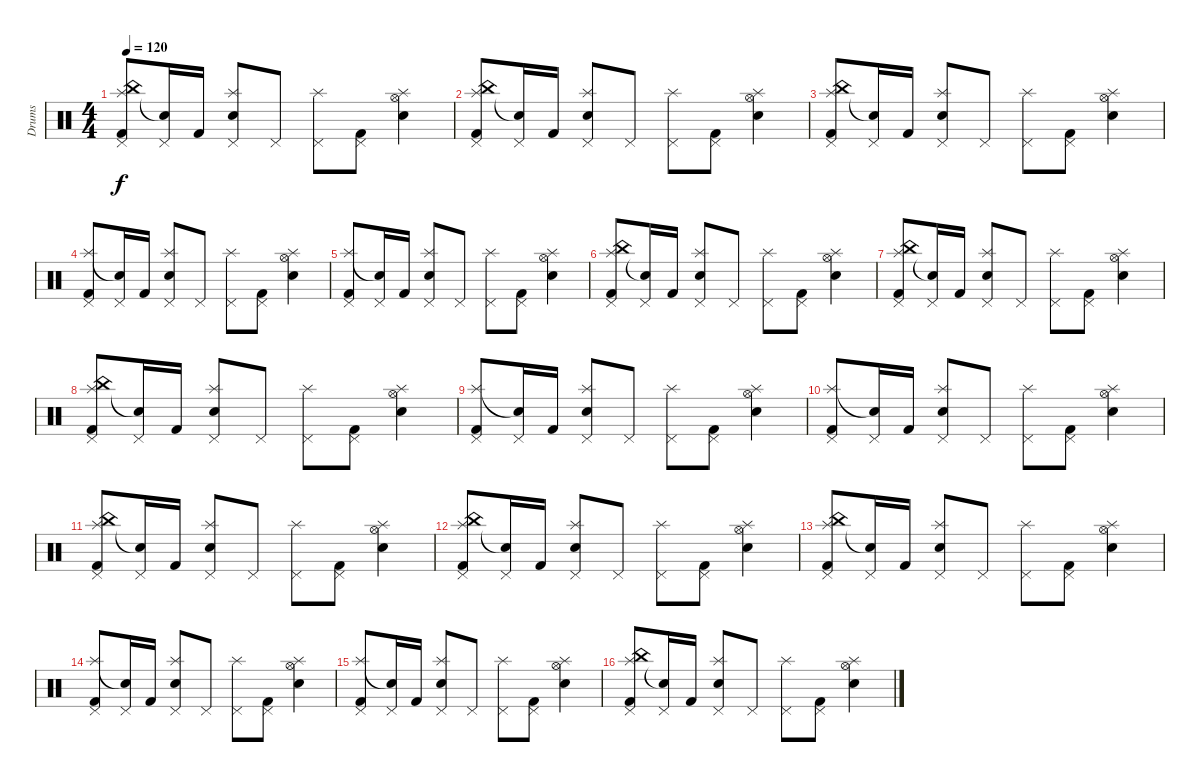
\track ("Drums" "Drums") {instrument percussion}
\staff {score}
\articulation defaults
\ts (4 4)
\tempo 120
\clef neutral
\ks c
("Pedal Hi-Hat (hit)" "Splash (hit)" "China (hit)" "Kick (hit) 2").8{dy f} ("Pedal Hi-Hat (hit)" "Snare (hit)"{t}).16 "Kick (hit) 2".16 ("Pedal Hi-Hat (hit)" "Splash (hit)" "Electric Snare (hit)").8 "Pedal Hi-Hat (hit)".8 ("Pedal Hi-Hat (hit)" "Splash (hit)").8 ("Pedal Hi-Hat (hit)" "Kick (hit) 2").8 ("Hi-Hat (open)" "Splash (hit)" "Electric Snare (hit)").4 |
("Pedal Hi-Hat (hit)" "Splash (hit)" "China (hit)" "Kick (hit) 2").8 ("Pedal Hi-Hat (hit)" "Snare (hit)"{t}).16 "Kick (hit) 2".16 ("Pedal Hi-Hat (hit)" "Splash (hit)" "Electric Snare (hit)").8 "Pedal Hi-Hat (hit)".8 ("Pedal Hi-Hat (hit)" "Splash (hit)").8 ("Pedal Hi-Hat (hit)" "Kick (hit) 2").8 ("Hi-Hat (open)" "Splash (hit)" "Electric Snare (hit)").4 |
("Pedal Hi-Hat (hit)" "Splash (hit)" "China (hit)" "Kick (hit) 2").8 ("Pedal Hi-Hat (hit)" "Snare (hit)"{t}).16 "Kick (hit) 2".16 ("Pedal Hi-Hat (hit)" "Splash (hit)" "Electric Snare (hit)").8 "Pedal Hi-Hat (hit)".8 ("Pedal Hi-Hat (hit)" "Splash (hit)").8 ("Pedal Hi-Hat (hit)" "Kick (hit) 2").8 ("Hi-Hat (open)" "Splash (hit)" "Electric Snare (hit)").4 |
("Pedal Hi-Hat (hit)" "Splash (hit)" "Kick (hit) 2").8 ("Pedal Hi-Hat (hit)" "Snare (hit)"{t}).16 "Kick (hit) 2".16 ("Pedal Hi-Hat (hit)" "Splash (hit)" "Electric Snare (hit)").8 "Pedal Hi-Hat (hit)".8 ("Pedal Hi-Hat (hit)" "Splash (hit)").8 ("Pedal Hi-Hat (hit)" "Kick (hit) 2").8 ("Hi-Hat (open)" "Splash (hit)" "Electric Snare (hit)").4 |
("Pedal Hi-Hat (hit)" "Splash (hit)" "Kick (hit) 2").8 ("Pedal Hi-Hat (hit)" "Snare (hit)"{t}).16 "Kick (hit) 2".16 ("Pedal Hi-Hat (hit)" "Splash (hit)" "Electric Snare (hit)").8 "Pedal Hi-Hat (hit)".8 ("Pedal Hi-Hat (hit)" "Splash (hit)").8 ("Pedal Hi-Hat (hit)" "Kick (hit) 2").8 ("Hi-Hat (open)" "Splash (hit)" "Electric Snare (hit)").4 |
("Pedal Hi-Hat (hit)" "Splash (hit)" "China (hit)" "Kick (hit) 2").8 ("Pedal Hi-Hat (hit)" "Snare (hit)"{t}).16 "Kick (hit) 2".16 ("Pedal Hi-Hat (hit)" "Splash (hit)" "Electric Snare (hit)").8 "Pedal Hi-Hat (hit)".8 ("Pedal Hi-Hat (hit)" "Splash (hit)").8 ("Pedal Hi-Hat (hit)" "Kick (hit) 2").8 ("Hi-Hat (open)" "Splash (hit)" "Electric Snare (hit)").4 |
("Pedal Hi-Hat (hit)" "Splash (hit)" "China (hit)" "Kick (hit) 2").8 ("Pedal Hi-Hat (hit)" "Snare (hit)"{t}).16 "Kick (hit) 2".16 ("Pedal Hi-Hat (hit)" "Splash (hit)" "Electric Snare (hit)").8 "Pedal Hi-Hat (hit)".8 ("Pedal Hi-Hat (hit)" "Splash (hit)").8 ("Pedal Hi-Hat (hit)" "Kick (hit) 2").8 ("Hi-Hat (open)" "Splash (hit)" "Electric Snare (hit)").4 |
("Pedal Hi-Hat (hit)" "Splash (hit)" "China (hit)" "Kick (hit) 2").8 ("Pedal Hi-Hat (hit)" "Snare (hit)"{t}).16 "Kick (hit) 2".16 ("Pedal Hi-Hat (hit)" "Splash (hit)" "Electric Snare (hit)").8 "Pedal Hi-Hat (hit)".8 ("Pedal Hi-Hat (hit)" "Splash (hit)").8 ("Pedal Hi-Hat (hit)" "Kick (hit) 2").8 ("Hi-Hat (open)" "Splash (hit)" "Electric Snare (hit)").4 |
("Pedal Hi-Hat (hit)" "Splash (hit)" "Kick (hit) 2").8 ("Pedal Hi-Hat (hit)" "Snare (hit)"{t}).16 "Kick (hit) 2".16 ("Pedal Hi-Hat (hit)" "Splash (hit)" "Electric Snare (hit)").8 "Pedal Hi-Hat (hit)".8 ("Pedal Hi-Hat (hit)" "Splash (hit)").8 ("Pedal Hi-Hat (hit)" "Kick (hit) 2").8 ("Hi-Hat (open)" "Splash (hit)" "Electric Snare (hit)").4 |
("Pedal Hi-Hat (hit)" "Splash (hit)" "Kick (hit) 2").8 ("Pedal Hi-Hat (hit)" "Snare (hit)"{t}).16 "Kick (hit) 2".16 ("Pedal Hi-Hat (hit)" "Splash (hit)" "Electric Snare (hit)").8 "Pedal Hi-Hat (hit)".8 ("Pedal Hi-Hat (hit)" "Splash (hit)").8 ("Pedal Hi-Hat (hit)" "Kick (hit) 2").8 ("Hi-Hat (open)" "Splash (hit)" "Electric Snare (hit)").4 |
("Pedal Hi-Hat (hit)" "Splash (hit)" "China (hit)" "Kick (hit) 2").8 ("Pedal Hi-Hat (hit)" "Snare (hit)"{t}).16 "Kick (hit) 2".16 ("Pedal Hi-Hat (hit)" "Splash (hit)" "Electric Snare (hit)").8 "Pedal Hi-Hat (hit)".8 ("Pedal Hi-Hat (hit)" "Splash (hit)").8 ("Pedal Hi-Hat (hit)" "Kick (hit) 2").8 ("Hi-Hat (open)" "Splash (hit)" "Electric Snare (hit)").4 |
("Pedal Hi-Hat (hit)" "Splash (hit)" "China (hit)" "Kick (hit) 2").8 ("Pedal Hi-Hat (hit)" "Snare (hit)"{t}).16 "Kick (hit) 2".16 ("Pedal Hi-Hat (hit)" "Splash (hit)" "Electric Snare (hit)").8 "Pedal Hi-Hat (hit)".8 ("Pedal Hi-Hat (hit)" "Splash (hit)").8 ("Pedal Hi-Hat (hit)" "Kick (hit) 2").8 ("Hi-Hat (open)" "Splash (hit)" "Electric Snare (hit)").4 |
("Pedal Hi-Hat (hit)" "Splash (hit)" "China (hit)" "Kick (hit) 2").8 ("Pedal Hi-Hat (hit)" "Snare (hit)"{t}).16 "Kick (hit) 2".16 ("Pedal Hi-Hat (hit)" "Splash (hit)" "Electric Snare (hit)").8 "Pedal Hi-Hat (hit)".8 ("Pedal Hi-Hat (hit)" "Splash (hit)").8 ("Pedal Hi-Hat (hit)" "Kick (hit) 2").8 ("Hi-Hat (open)" "Splash (hit)" "Electric Snare (hit)").4 |
("Pedal Hi-Hat (hit)" "Splash (hit)" "Kick (hit) 2").8 ("Pedal Hi-Hat (hit)" "Snare (hit)"{t}).16 "Kick (hit) 2".16 ("Pedal Hi-Hat (hit)" "Splash (hit)" "Electric Snare (hit)").8 "Pedal Hi-Hat (hit)".8 ("Pedal Hi-Hat (hit)" "Splash (hit)").8 ("Pedal Hi-Hat (hit)" "Kick (hit) 2").8 ("Hi-Hat (open)" "Splash (hit)" "Electric Snare (hit)").4 |
("Pedal Hi-Hat (hit)" "Splash (hit)" "Kick (hit) 2").8 ("Pedal Hi-Hat (hit)" "Snare (hit)"{t}).16 "Kick (hit) 2".16 ("Pedal Hi-Hat (hit)" "Splash (hit)" "Electric Snare (hit)").8 "Pedal Hi-Hat (hit)".8 ("Pedal Hi-Hat (hit)" "Splash (hit)").8 ("Pedal Hi-Hat (hit)" "Kick (hit) 2").8 ("Hi-Hat (open)" "Splash (hit)" "Electric Snare (hit)").4 |
("Pedal Hi-Hat (hit)" "Splash (hit)" "China (hit)" "Kick (hit) 2").8 ("Pedal Hi-Hat (hit)" "Snare (hit)"{t}).16 "Kick (hit) 2".16 ("Pedal Hi-Hat (hit)" "Splash (hit)" "Electric Snare (hit)").8 "Pedal Hi-Hat (hit)".8 ("Pedal Hi-Hat (hit)" "Splash (hit)").8 ("Pedal Hi-Hat (hit)" "Kick (hit) 2").8 ("Hi-Hat (open)" "Splash (hit)" "Electric Snare (hit)").4
